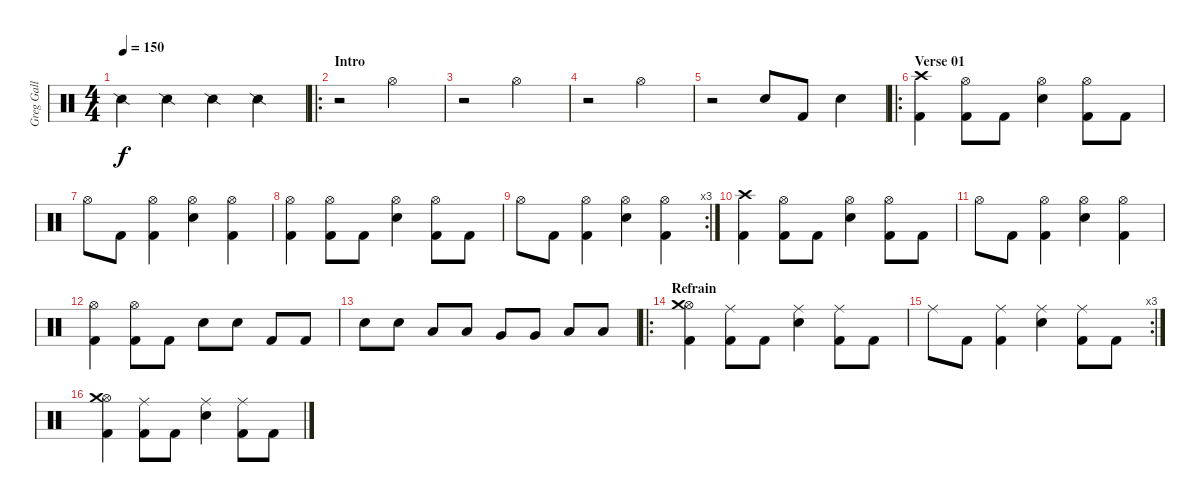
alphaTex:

\track ("Greg Gall" "Greg Gall") {instrument percussion}
\staff {score}
\articulation defaults
\ts (4 4)
\tempo 150
\clef neutral
\ks c "Snare (side stick) 2".4{dy f} "Snare (side stick) 2".4 "Snare (side stick) 2".4 "Snare (side stick) 2".4
|
\ro
\section ("" "Intro")
r.2 "Hi-Hat (open)".2 |
r.2 "Hi-Hat (open)".2 |
r.2 "Hi-Hat (open)".2 |
r.2 "Electric Snare (hit)".8 "Kick (hit) 2".8 "Electric Snare (hit)".4 |
\ro
\section ("" "Verse 01")
("Crash high (hit)" "Kick (hit) 2").4 ("Hi-Hat (open)" "Kick (hit) 2").8 "Kick (hit) 2".8 ("Hi-Hat (open)" "Electric Snare (hit)").4 ("Hi-Hat (open)" "Kick (hit) 2").8 "Kick (hit) 2".8 |
"Hi-Hat (open)".8 "Kick (hit) 2".8 ("Hi-Hat (open)" "Kick (hit) 2").4 ("Hi-Hat (open)" "Electric Snare (hit)").4 ("Hi-Hat (open)" "Kick (hit) 2").4 |
("Hi-Hat (open)" "Kick (hit) 2").4 ("Hi-Hat (open)" "Kick (hit) 2").8 "Kick (hit) 2".8 ("Hi-Hat (open)" "Electric Snare (hit)").4 ("Hi-Hat (open)" "Kick (hit) 2").8 "Kick (hit) 2".8 |
\rc 3 "Hi-Hat (open)".8 "Kick (hit) 2".8
("Hi-Hat (open)" "Kick (hit) 2").4 ("Hi-Hat (open)" "Electric Snare (hit)").4 ("Hi-Hat (open)" "Kick (hit) 2").4 |
("Crash high (hit)" "Kick (hit) 2").4 ("Hi-Hat (open)" "Kick (hit) 2").8 "Kick (hit) 2".8 ("Hi-Hat (open)" "Electric Snare (hit)").4 ("Hi-Hat (open)" "Kick (hit) 2").8 "Kick (hit) 2".8 |
"Hi-Hat (open)".8 "Kick (hit) 2".8 ("Hi-Hat (open)" "Kick (hit) 2").4 ("Hi-Hat (open)" "Electric Snare (hit)").4 ("Hi-Hat (open)" "Kick (hit) 2").4 |
("Hi-Hat (open)" "Kick (hit) 2").4 ("Hi-Hat (open)" "Kick (hit) 2").8 "Kick (hit) 2".8 "Electric Snare (hit)".8 "Electric Snare (hit)".8 "Kick (hit) 2".8 "Kick (hit) 2".8 |
"Electric Snare (hit)".8 "Electric Snare (hit)".8 "Low Tom (hit)".8 "Low Tom (hit)".8 "Very Low Tom (hit)".8 "Very Low Tom (hit)".8 "Low Floor Tom (hit)".8 "Low Floor Tom (hit)".8 |
\ro
\section ("" "Refrain")
("Hi-Hat (open)" "Crash medium (hit)" "Kick (hit) 2").4 ("Ride (middle)" "Kick (hit) 2").8 "Kick (hit) 2".8 ("Ride (middle)" "Electric Snare (hit)").4 ("Ride (middle)" "Kick (hit) 2").8 "Kick (hit) 2".8 |
\rc 3 "Ride (middle)".8 "Kick (hit) 2".8
("Ride (middle)" "Kick (hit) 2").4 ("Ride (middle)" "Electric Snare (hit)").4 ("Ride (middle)" "Kick (hit) 2").8 "Kick (hit) 2".8 |
("Hi-Hat (open)" "Crash medium (hit)" "Kick (hit) 2").4 ("Ride (middle)" "Kick (hit) 2").8 "Kick (hit) 2".8 ("Ride (middle)" "Electric Snare (hit)").4 ("Ride (middle)" "Kick (hit) 2").8 "Kick (hit) 2".8
